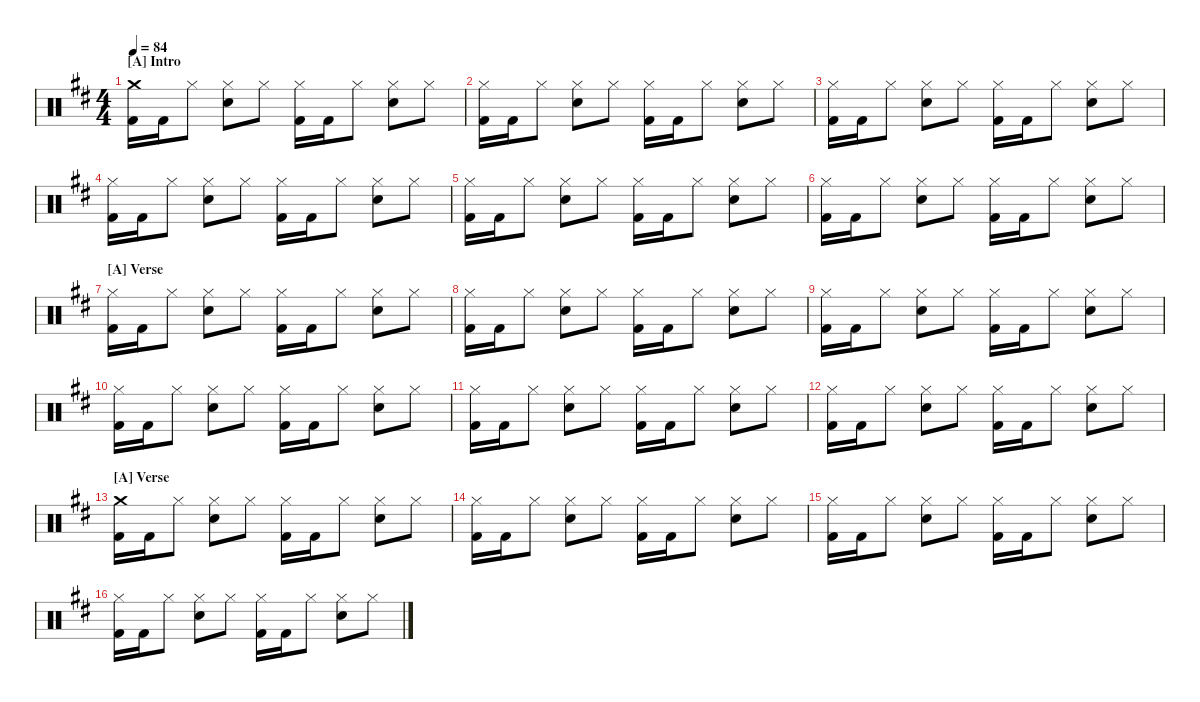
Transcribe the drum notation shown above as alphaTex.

\hideDynamics
\bracketExtendMode nobrackets
\singleTrackTrackNamePolicy hidden
\multiTrackTrackNamePolicy hidden
\otherSystemsTrackNameOrientation horizontal
\track ("Drumkit" "Drums") {instrument percussion}
\staff {score}
\articulation defaults
\ts (4 4)
\beaming (8 2 2 2 2)
\section ("A" "Intro")
\tempo 84
\clef neutral
\ks d
("Kick (hit) 2"{acc forcenatural} "Crash medium (hit)"{acc forcenatural}).16{dy f beam Down} "Kick (hit) 2"{acc forcenatural}.16{beam Down} "Hi-Hat (closed)"{acc forcenatural}.8{beam Down} ("Snare (hit) 2"{acc forcenatural} "Hi-Hat (closed)"{acc forcenatural}).8{beam Down} "Hi-Hat (closed)"{acc forcenatural}.8{beam Down} ("Kick (hit) 2"{acc forcenatural} "Hi-Hat (closed)"{acc forcenatural}).16{beam Down} "Kick (hit) 2"{acc forcenatural}.16{beam Down} "Hi-Hat (closed)"{acc forcenatural}.8{beam Down} ("Snare (hit) 2"{acc forcenatural} "Hi-Hat (closed)"{acc forcenatural}).8{beam Down} "Hi-Hat (closed)"{acc forcenatural}.8{beam Down} |
("Kick (hit) 2"{acc forcenatural} "Hi-Hat (closed)"{acc forcenatural}).16{beam Down} "Kick (hit) 2"{acc forcenatural}.16{beam Down} "Hi-Hat (closed)"{acc forcenatural}.8{beam Down} ("Snare (hit) 2"{acc forcenatural} "Hi-Hat (closed)"{acc forcenatural}).8{beam Down} "Hi-Hat (closed)"{acc forcenatural}.8{beam Down} ("Kick (hit) 2"{acc forcenatural} "Hi-Hat (closed)"{acc forcenatural}).16{beam Down} "Kick (hit) 2"{acc forcenatural}.16{beam Down} "Hi-Hat (closed)"{acc forcenatural}.8{beam Down} ("Snare (hit) 2"{acc forcenatural} "Hi-Hat (closed)"{acc forcenatural}).8{beam Down} "Hi-Hat (closed)"{acc forcenatural}.8{beam Down} |
("Kick (hit) 2"{acc forcenatural} "Hi-Hat (closed)"{acc forcenatural}).16{beam Down} "Kick (hit) 2"{acc forcenatural}.16{beam Down} "Hi-Hat (closed)"{acc forcenatural}.8{beam Down} ("Snare (hit) 2"{acc forcenatural} "Hi-Hat (closed)"{acc forcenatural}).8{beam Down} "Hi-Hat (closed)"{acc forcenatural}.8{beam Down} ("Kick (hit) 2"{acc forcenatural} "Hi-Hat (closed)"{acc forcenatural}).16{beam Down} "Kick (hit) 2"{acc forcenatural}.16{beam Down} "Hi-Hat (closed)"{acc forcenatural}.8{beam Down} ("Snare (hit) 2"{acc forcenatural} "Hi-Hat (closed)"{acc forcenatural}).8{beam Down} "Hi-Hat (closed)"{acc forcenatural}.8{beam Down} |
("Kick (hit) 2"{acc forcenatural} "Hi-Hat (closed)"{acc forcenatural}).16{beam Down} "Kick (hit) 2"{acc forcenatural}.16{beam Down} "Hi-Hat (closed)"{acc forcenatural}.8{beam Down} ("Snare (hit) 2"{acc forcenatural} "Hi-Hat (closed)"{acc forcenatural}).8{beam Down} "Hi-Hat (closed)"{acc forcenatural}.8{beam Down} ("Kick (hit) 2"{acc forcenatural} "Hi-Hat (closed)"{acc forcenatural}).16{beam Down} "Kick (hit) 2"{acc forcenatural}.16{beam Down} "Hi-Hat (closed)"{acc forcenatural}.8{beam Down} ("Snare (hit) 2"{acc forcenatural} "Hi-Hat (closed)"{acc forcenatural}).8{beam Down} "Hi-Hat (closed)"{acc forcenatural}.8{beam Down} |
("Kick (hit) 2"{acc forcenatural} "Hi-Hat (closed)"{acc forcenatural}).16{beam Down} "Kick (hit) 2"{acc forcenatural}.16{beam Down} "Hi-Hat (closed)"{acc forcenatural}.8{beam Down} ("Snare (hit) 2"{acc forcenatural} "Hi-Hat (closed)"{acc forcenatural}).8{beam Down} "Hi-Hat (closed)"{acc forcenatural}.8{beam Down} ("Kick (hit) 2"{acc forcenatural} "Hi-Hat (closed)"{acc forcenatural}).16{beam Down} "Kick (hit) 2"{acc forcenatural}.16{beam Down} "Hi-Hat (closed)"{acc forcenatural}.8{beam Down} ("Snare (hit) 2"{acc forcenatural} "Hi-Hat (closed)"{acc forcenatural}).8{beam Down} "Hi-Hat (closed)"{acc forcenatural}.8{beam Down} |
("Kick (hit) 2"{acc forcenatural} "Hi-Hat (closed)"{acc forcenatural}).16{beam Down} "Kick (hit) 2"{acc forcenatural}.16{beam Down} "Hi-Hat (closed)"{acc forcenatural}.8{beam Down} ("Snare (hit) 2"{acc forcenatural} "Hi-Hat (closed)"{acc forcenatural}).8{beam Down} "Hi-Hat (closed)"{acc forcenatural}.8{beam Down} ("Kick (hit) 2"{acc forcenatural} "Hi-Hat (closed)"{acc forcenatural}).16{beam Down} "Kick (hit) 2"{acc forcenatural}.16{beam Down} "Hi-Hat (closed)"{acc forcenatural}.8{beam Down} ("Snare (hit) 2"{acc forcenatural} "Hi-Hat (closed)"{acc forcenatural}).8{beam Down} "Hi-Hat (closed)"{acc forcenatural}.8{beam Down} |
\section ("A" "Verse")
("Kick (hit) 2"{acc forcenatural} "Hi-Hat (closed)"{acc forcenatural}).16{beam Down} "Kick (hit) 2"{acc forcenatural}.16{beam Down} "Hi-Hat (closed)"{acc forcenatural}.8{beam Down} ("Snare (hit) 2"{acc forcenatural} "Hi-Hat (closed)"{acc forcenatural}).8{beam Down} "Hi-Hat (closed)"{acc forcenatural}.8{beam Down} ("Kick (hit) 2"{acc forcenatural} "Hi-Hat (closed)"{acc forcenatural}).16{beam Down} "Kick (hit) 2"{acc forcenatural}.16{beam Down} "Hi-Hat (closed)"{acc forcenatural}.8{beam Down} ("Snare (hit) 2"{acc forcenatural} "Hi-Hat (closed)"{acc forcenatural}).8{beam Down} "Hi-Hat (closed)"{acc forcenatural}.8{beam Down} |
("Kick (hit) 2"{acc forcenatural} "Hi-Hat (closed)"{acc forcenatural}).16{beam Down} "Kick (hit) 2"{acc forcenatural}.16{beam Down} "Hi-Hat (closed)"{acc forcenatural}.8{beam Down} ("Snare (hit) 2"{acc forcenatural} "Hi-Hat (closed)"{acc forcenatural}).8{beam Down} "Hi-Hat (closed)"{acc forcenatural}.8{beam Down} ("Kick (hit) 2"{acc forcenatural} "Hi-Hat (closed)"{acc forcenatural}).16{beam Down} "Kick (hit) 2"{acc forcenatural}.16{beam Down} "Hi-Hat (closed)"{acc forcenatural}.8{beam Down} ("Snare (hit) 2"{acc forcenatural} "Hi-Hat (closed)"{acc forcenatural}).8{beam Down} "Hi-Hat (closed)"{acc forcenatural}.8{beam Down} |
("Kick (hit) 2"{acc forcenatural} "Hi-Hat (closed)"{acc forcenatural}).16{beam Down} "Kick (hit) 2"{acc forcenatural}.16{beam Down} "Hi-Hat (closed)"{acc forcenatural}.8{beam Down} ("Snare (hit) 2"{acc forcenatural} "Hi-Hat (closed)"{acc forcenatural}).8{beam Down} "Hi-Hat (closed)"{acc forcenatural}.8{beam Down} ("Kick (hit) 2"{acc forcenatural} "Hi-Hat (closed)"{acc forcenatural}).16{beam Down} "Kick (hit) 2"{acc forcenatural}.16{beam Down} "Hi-Hat (closed)"{acc forcenatural}.8{beam Down} ("Snare (hit) 2"{acc forcenatural} "Hi-Hat (closed)"{acc forcenatural}).8{beam Down} "Hi-Hat (closed)"{acc forcenatural}.8{beam Down} |
("Kick (hit) 2"{acc forcenatural} "Hi-Hat (closed)"{acc forcenatural}).16{beam Down} "Kick (hit) 2"{acc forcenatural}.16{beam Down} "Hi-Hat (closed)"{acc forcenatural}.8{beam Down} ("Snare (hit) 2"{acc forcenatural} "Hi-Hat (closed)"{acc forcenatural}).8{beam Down} "Hi-Hat (closed)"{acc forcenatural}.8{beam Down} ("Kick (hit) 2"{acc forcenatural} "Hi-Hat (closed)"{acc forcenatural}).16{beam Down} "Kick (hit) 2"{acc forcenatural}.16{beam Down} "Hi-Hat (closed)"{acc forcenatural}.8{beam Down} ("Snare (hit) 2"{acc forcenatural} "Hi-Hat (closed)"{acc forcenatural}).8{beam Down} "Hi-Hat (closed)"{acc forcenatural}.8{beam Down} |
("Kick (hit) 2"{acc forcenatural} "Hi-Hat (closed)"{acc forcenatural}).16{beam Down} "Kick (hit) 2"{acc forcenatural}.16{beam Down} "Hi-Hat (closed)"{acc forcenatural}.8{beam Down} ("Snare (hit) 2"{acc forcenatural} "Hi-Hat (closed)"{acc forcenatural}).8{beam Down} "Hi-Hat (closed)"{acc forcenatural}.8{beam Down} ("Kick (hit) 2"{acc forcenatural} "Hi-Hat (closed)"{acc forcenatural}).16{beam Down} "Kick (hit) 2"{acc forcenatural}.16{beam Down} "Hi-Hat (closed)"{acc forcenatural}.8{beam Down} ("Snare (hit) 2"{acc forcenatural} "Hi-Hat (closed)"{acc forcenatural}).8{beam Down} "Hi-Hat (closed)"{acc forcenatural}.8{beam Down} |
("Kick (hit) 2"{acc forcenatural} "Hi-Hat (closed)"{acc forcenatural}).16{beam Down} "Kick (hit) 2"{acc forcenatural}.16{beam Down} "Hi-Hat (closed)"{acc forcenatural}.8{beam Down} ("Snare (hit) 2"{acc forcenatural} "Hi-Hat (closed)"{acc forcenatural}).8{beam Down} "Hi-Hat (closed)"{acc forcenatural}.8{beam Down} ("Kick (hit) 2"{acc forcenatural} "Hi-Hat (closed)"{acc forcenatural}).16{beam Down} "Kick (hit) 2"{acc forcenatural}.16{beam Down} "Hi-Hat (closed)"{acc forcenatural}.8{beam Down} ("Snare (hit) 2"{acc forcenatural} "Hi-Hat (closed)"{acc forcenatural}).8{beam Down} "Hi-Hat (closed)"{acc forcenatural}.8{beam Down} |
\section ("A" "Verse")
("Kick (hit) 2"{acc forcenatural} "Crash medium (hit)"{acc forcenatural}).16{beam Down} "Kick (hit) 2"{acc forcenatural}.16{beam Down} "Hi-Hat (closed)"{acc forcenatural}.8{beam Down} ("Snare (hit) 2"{acc forcenatural} "Hi-Hat (closed)"{acc forcenatural}).8{beam Down} "Hi-Hat (closed)"{acc forcenatural}.8{beam Down} ("Kick (hit) 2"{acc forcenatural} "Hi-Hat (closed)"{acc forcenatural}).16{beam Down} "Kick (hit) 2"{acc forcenatural}.16{beam Down} "Hi-Hat (closed)"{acc forcenatural}.8{beam Down} ("Snare (hit) 2"{acc forcenatural} "Hi-Hat (closed)"{acc forcenatural}).8{beam Down} "Hi-Hat (closed)"{acc forcenatural}.8{beam Down} |
("Kick (hit) 2"{acc forcenatural} "Hi-Hat (closed)"{acc forcenatural}).16{beam Down} "Kick (hit) 2"{acc forcenatural}.16{beam Down} "Hi-Hat (closed)"{acc forcenatural}.8{beam Down} ("Snare (hit) 2"{acc forcenatural} "Hi-Hat (closed)"{acc forcenatural}).8{beam Down} "Hi-Hat (closed)"{acc forcenatural}.8{beam Down} ("Kick (hit) 2"{acc forcenatural} "Hi-Hat (closed)"{acc forcenatural}).16{beam Down} "Kick (hit) 2"{acc forcenatural}.16{beam Down} "Hi-Hat (closed)"{acc forcenatural}.8{beam Down} ("Snare (hit) 2"{acc forcenatural} "Hi-Hat (closed)"{acc forcenatural}).8{beam Down} "Hi-Hat (closed)"{acc forcenatural}.8{beam Down} |
("Kick (hit) 2"{acc forcenatural} "Hi-Hat (closed)"{acc forcenatural}).16{beam Down} "Kick (hit) 2"{acc forcenatural}.16{beam Down} "Hi-Hat (closed)"{acc forcenatural}.8{beam Down} ("Snare (hit) 2"{acc forcenatural} "Hi-Hat (closed)"{acc forcenatural}).8{beam Down} "Hi-Hat (closed)"{acc forcenatural}.8{beam Down} ("Kick (hit) 2"{acc forcenatural} "Hi-Hat (closed)"{acc forcenatural}).16{beam Down} "Kick (hit) 2"{acc forcenatural}.16{beam Down} "Hi-Hat (closed)"{acc forcenatural}.8{beam Down} ("Snare (hit) 2"{acc forcenatural} "Hi-Hat (closed)"{acc forcenatural}).8{beam Down} "Hi-Hat (closed)"{acc forcenatural}.8{beam Down} |
("Kick (hit) 2"{acc forcenatural} "Hi-Hat (closed)"{acc forcenatural}).16{beam Down} "Kick (hit) 2"{acc forcenatural}.16{beam Down} "Hi-Hat (closed)"{acc forcenatural}.8{beam Down} ("Snare (hit) 2"{acc forcenatural} "Hi-Hat (closed)"{acc forcenatural}).8{beam Down} "Hi-Hat (closed)"{acc forcenatural}.8{beam Down} ("Kick (hit) 2"{acc forcenatural} "Hi-Hat (closed)"{acc forcenatural}).16{beam Down} "Kick (hit) 2"{acc forcenatural}.16{beam Down} "Hi-Hat (closed)"{acc forcenatural}.8{beam Down} ("Snare (hit) 2"{acc forcenatural} "Hi-Hat (closed)"{acc forcenatural}).8{beam Down} "Hi-Hat (closed)"{acc forcenatural}.8{beam Down}
